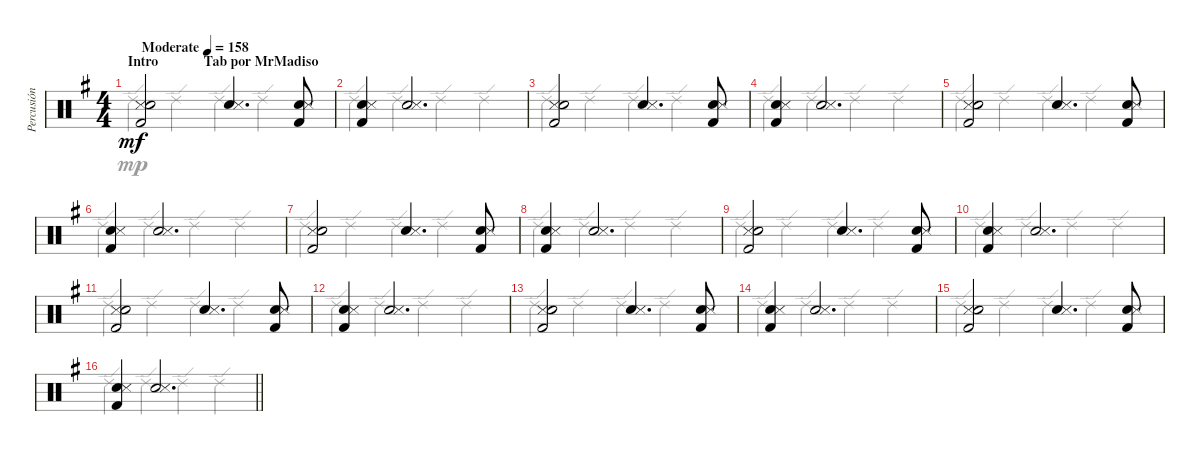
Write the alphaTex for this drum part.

\track ("Percusión" "Percusión") {instrument percussion}
\staff {score}
\articulation defaults
\voice
\ts (4 4)
\section ("" "Intro             Tab por MrMadiso")
\tempo (158 "Moderate")
\clef neutral
\ks g
("Snare (side stick) 3" "Hand Clap (hit)" "Kick (hit) 2").2{dy mf} ("Hand Clap (hit)" "Snare (side stick) 3").4{d} ("Hand Clap (hit)" "Snare (side stick) 3" "Kick (hit) 2").8 |
("Hand Clap (hit)" "Snare (side stick) 3" "Kick (hit) 2").4 ("Hand Clap (hit)" "Snare (side stick) 3").2{d} |
("Snare (side stick) 3" "Hand Clap (hit)" "Kick (hit) 2").2 ("Hand Clap (hit)" "Snare (side stick) 3").4{d} ("Hand Clap (hit)" "Snare (side stick) 3" "Kick (hit) 2").8 |
("Hand Clap (hit)" "Snare (side stick) 3" "Kick (hit) 2").4 ("Hand Clap (hit)" "Snare (side stick) 3").2{d} |
("Snare (side stick) 3" "Hand Clap (hit)" "Kick (hit) 2").2 ("Hand Clap (hit)" "Snare (side stick) 3").4{d} ("Hand Clap (hit)" "Snare (side stick) 3" "Kick (hit) 2").8 |
("Hand Clap (hit)" "Snare (side stick) 3" "Kick (hit) 2").4 ("Hand Clap (hit)" "Snare (side stick) 3").2{d} |
("Snare (side stick) 3" "Hand Clap (hit)" "Kick (hit) 2").2 ("Hand Clap (hit)" "Snare (side stick) 3").4{d} ("Hand Clap (hit)" "Snare (side stick) 3" "Kick (hit) 2").8 |
("Hand Clap (hit)" "Snare (side stick) 3" "Kick (hit) 2").4 ("Hand Clap (hit)" "Snare (side stick) 3").2{d} |
("Snare (side stick) 3" "Hand Clap (hit)" "Kick (hit) 2").2 ("Hand Clap (hit)" "Snare (side stick) 3").4{d} ("Hand Clap (hit)" "Snare (side stick) 3" "Kick (hit) 2").8 |
("Hand Clap (hit)" "Snare (side stick) 3" "Kick (hit) 2").4 ("Hand Clap (hit)" "Snare (side stick) 3").2{d} |
("Snare (side stick) 3" "Hand Clap (hit)" "Kick (hit) 2").2 ("Hand Clap (hit)" "Snare (side stick) 3").4{d} ("Hand Clap (hit)" "Snare (side stick) 3" "Kick (hit) 2").8 |
("Hand Clap (hit)" "Snare (side stick) 3" "Kick (hit) 2").4 ("Hand Clap (hit)" "Snare (side stick) 3").2{d} |
("Snare (side stick) 3" "Hand Clap (hit)" "Kick (hit) 2").2 ("Hand Clap (hit)" "Snare (side stick) 3").4{d} ("Hand Clap (hit)" "Snare (side stick) 3" "Kick (hit) 2").8 |
("Hand Clap (hit)" "Snare (side stick) 3" "Kick (hit) 2").4 ("Hand Clap (hit)" "Snare (side stick) 3").2{d} |
("Snare (side stick) 3" "Hand Clap (hit)" "Kick (hit) 2").2 ("Hand Clap (hit)" "Snare (side stick) 3").4{d} ("Hand Clap (hit)" "Snare (side stick) 3" "Kick (hit) 2").8 |
\barLineRight lightlight
("Hand Clap (hit)" "Snare (side stick) 3" "Kick (hit) 2").4 ("Hand Clap (hit)" "Snare (side stick) 3").2{d}
\voice
\clef neutral
\ottava regular
\simile none
\ks g "Ride (edge) 2".4{dy mp} "Ride (edge) 2".4 "Ride (edge) 2".4 "Ride (edge) 2".4
|
"Ride (edge) 2".4 "Ride (edge) 2".4 "Ride (edge) 2".4 "Ride (edge) 2".4 |
"Ride (edge) 2".4 "Ride (edge) 2".4 "Ride (edge) 2".4 "Ride (edge) 2".4 |
"Ride (edge) 2".4 "Ride (edge) 2".4 "Ride (edge) 2".4 "Ride (edge) 2".4 |
"Ride (edge) 2".4 "Ride (edge) 2".4 "Ride (edge) 2".4 "Ride (edge) 2".4 |
"Ride (edge) 2".4 "Ride (edge) 2".4 "Ride (edge) 2".4 "Ride (edge) 2".4 |
"Ride (edge) 2".4 "Ride (edge) 2".4 "Ride (edge) 2".4 "Ride (edge) 2".4 |
"Ride (edge) 2".4 "Ride (edge) 2".4 "Ride (edge) 2".4 "Ride (edge) 2".4 |
"Ride (edge) 2".4 "Ride (edge) 2".4 "Ride (edge) 2".4 "Ride (edge) 2".4 |
"Ride (edge) 2".4 "Ride (edge) 2".4 "Ride (edge) 2".4 "Ride (edge) 2".4 |
"Ride (edge) 2".4 "Ride (edge) 2".4 "Ride (edge) 2".4 "Ride (edge) 2".4 |
"Ride (edge) 2".4 "Ride (edge) 2".4 "Ride (edge) 2".4 "Ride (edge) 2".4 |
"Ride (edge) 2".4 "Ride (edge) 2".4 "Ride (edge) 2".4 "Ride (edge) 2".4 |
"Ride (edge) 2".4 "Ride (edge) 2".4 "Ride (edge) 2".4 "Ride (edge) 2".4 |
"Ride (edge) 2".4 "Ride (edge) 2".4 "Ride (edge) 2".4 "Ride (edge) 2".4 |
\barLineRight lightlight "Ride (edge) 2".4 "Ride (edge) 2".4 "Ride (edge) 2".4 "Ride (edge) 2".4
